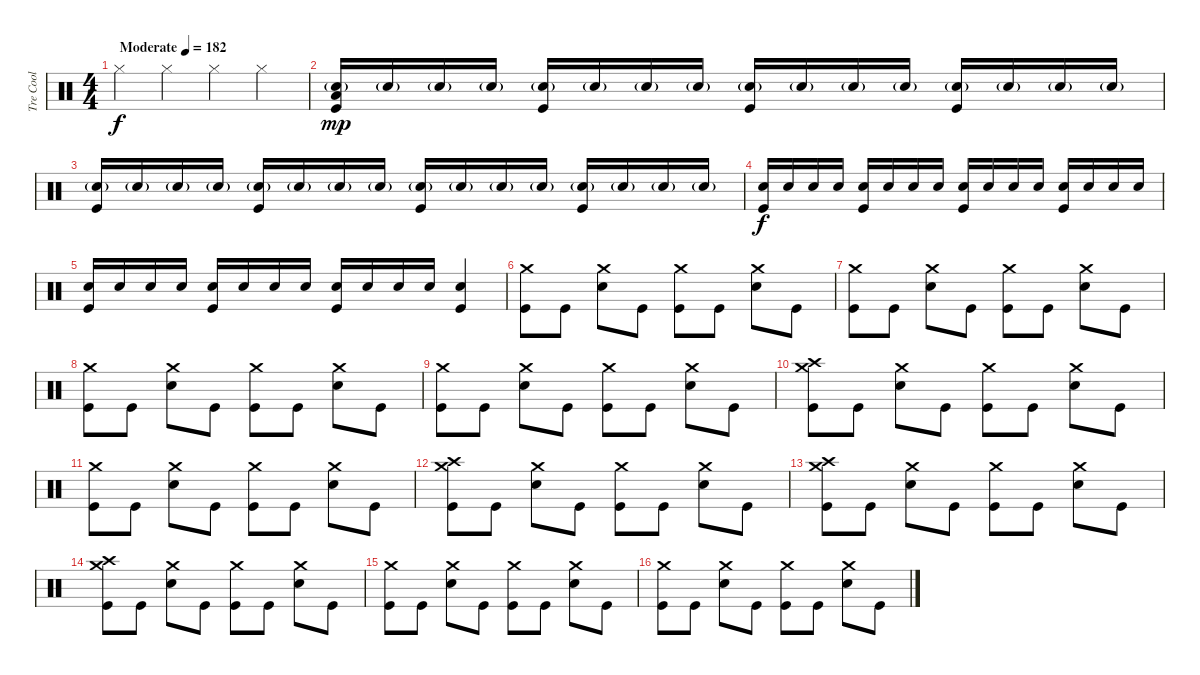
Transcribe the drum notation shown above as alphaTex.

\track ("Tre Cool" "Tre Cool") {instrument percussion}
\staff {score}
\articulation defaults
\ts (4 4)
\tempo (182 "Moderate")
\clef neutral
\ks c "Hi-Hat (closed)".4{dy f} "Hi-Hat (closed)".4 "Hi-Hat (closed)".4 "Hi-Hat (closed)".4
|
("Low Floor Tom (hit)" "Snare (hit) 2"{g} "Kick (hit)").16{dy mp} "Snare (hit) 2"{g}.16 "Snare (hit) 2"{g}.16 "Snare (hit) 2"{g}.16 ("Snare (hit) 2"{g} "Kick (hit)").16 "Snare (hit) 2"{g}.16 "Snare (hit) 2"{g}.16 "Snare (hit) 2"{g}.16 ("Snare (hit) 2"{g} "Kick (hit)").16 "Snare (hit) 2"{g}.16 "Snare (hit) 2"{g}.16 "Snare (hit) 2"{g}.16 ("Snare (hit) 2"{g} "Kick (hit)").16 "Snare (hit) 2"{g}.16 "Snare (hit) 2"{g}.16 "Snare (hit) 2"{g}.16 |
("Snare (hit) 2"{g} "Kick (hit)").16 "Snare (hit) 2"{g}.16 "Snare (hit) 2"{g}.16 "Snare (hit) 2"{g}.16 ("Snare (hit) 2"{g} "Kick (hit)").16 "Snare (hit) 2"{g}.16 "Snare (hit) 2"{g}.16 "Snare (hit) 2"{g}.16 ("Snare (hit) 2"{g} "Kick (hit)").16 "Snare (hit) 2"{g}.16 "Snare (hit) 2"{g}.16 "Snare (hit) 2"{g}.16 ("Snare (hit) 2"{g} "Kick (hit)").16 "Snare (hit) 2"{g}.16 "Snare (hit) 2"{g}.16 "Snare (hit) 2"{g}.16 |
("Snare (hit) 2" "Kick (hit)").16{dy f} "Snare (hit) 2".16 "Snare (hit) 2".16 "Snare (hit) 2".16 ("Snare (hit) 2" "Kick (hit)").16 "Snare (hit) 2".16 "Snare (hit) 2".16 "Snare (hit) 2".16 ("Snare (hit) 2" "Kick (hit)").16 "Snare (hit) 2".16 "Snare (hit) 2".16 "Snare (hit) 2".16 ("Snare (hit) 2" "Kick (hit)").16 "Snare (hit) 2".16 "Snare (hit) 2".16 "Snare (hit) 2".16 |
("Snare (hit) 2" "Kick (hit)").16 "Snare (hit) 2".16 "Snare (hit) 2".16 "Snare (hit) 2".16 ("Snare (hit) 2" "Kick (hit)").16 "Snare (hit) 2".16 "Snare (hit) 2".16 "Snare (hit) 2".16 ("Snare (hit) 2" "Kick (hit)").16 "Snare (hit) 2".16 "Snare (hit) 2".16 "Snare (hit) 2".16 ("Snare (hit) 2" "Kick (hit)").4 |
("Crash medium (hit)" "Kick (hit)").8 "Kick (hit)".8 ("Crash medium (hit)" "Snare (hit) 2").8 "Kick (hit)".8 ("Crash medium (hit)" "Kick (hit)").8 "Kick (hit)".8 ("Crash medium (hit)" "Snare (hit) 2").8 "Kick (hit)".8 |
("Crash medium (hit)" "Kick (hit)").8 "Kick (hit)".8 ("Crash medium (hit)" "Snare (hit) 2").8 "Kick (hit)".8 ("Crash medium (hit)" "Kick (hit)").8 "Kick (hit)".8 ("Crash medium (hit)" "Snare (hit) 2").8 "Kick (hit)".8 |
("Crash medium (hit)" "Kick (hit)").8 "Kick (hit)".8 ("Crash medium (hit)" "Snare (hit) 2").8 "Kick (hit)".8 ("Crash medium (hit)" "Kick (hit)").8 "Kick (hit)".8 ("Crash medium (hit)" "Snare (hit) 2").8 "Kick (hit)".8 |
("Crash medium (hit)" "Kick (hit)").8 "Kick (hit)".8 ("Crash medium (hit)" "Snare (hit) 2").8 "Kick (hit)".8 ("Crash medium (hit)" "Kick (hit)").8 "Kick (hit)".8 ("Crash medium (hit)" "Snare (hit) 2").8 "Kick (hit)".8 |
("Crash medium (hit)" "Crash high (hit)" "Kick (hit)").8 "Kick (hit)".8 ("Crash medium (hit)" "Snare (hit) 2").8 "Kick (hit)".8 ("Crash medium (hit)" "Kick (hit)").8 "Kick (hit)".8 ("Crash medium (hit)" "Snare (hit) 2").8 "Kick (hit)".8 |
("Crash medium (hit)" "Kick (hit)").8 "Kick (hit)".8 ("Crash medium (hit)" "Snare (hit) 2").8 "Kick (hit)".8 ("Crash medium (hit)" "Kick (hit)").8 "Kick (hit)".8 ("Crash medium (hit)" "Snare (hit) 2").8 "Kick (hit)".8 |
("Crash medium (hit)" "Crash high (hit)" "Kick (hit)").8 "Kick (hit)".8 ("Crash medium (hit)" "Snare (hit) 2").8 "Kick (hit)".8 ("Crash medium (hit)" "Kick (hit)").8 "Kick (hit)".8 ("Crash medium (hit)" "Snare (hit) 2").8 "Kick (hit)".8 |
("Crash medium (hit)" "Crash high (hit)" "Kick (hit)").8 "Kick (hit)".8 ("Crash medium (hit)" "Snare (hit) 2").8 "Kick (hit)".8 ("Crash medium (hit)" "Kick (hit)").8 "Kick (hit)".8 ("Crash medium (hit)" "Snare (hit) 2").8 "Kick (hit)".8 |
("Crash medium (hit)" "Crash high (hit)" "Kick (hit)").8 "Kick (hit)".8 ("Crash medium (hit)" "Snare (hit) 2").8 "Kick (hit)".8 ("Crash medium (hit)" "Kick (hit)").8 "Kick (hit)".8 ("Crash medium (hit)" "Snare (hit) 2").8 "Kick (hit)".8 |
("Crash medium (hit)" "Kick (hit)").8 "Kick (hit)".8 ("Crash medium (hit)" "Snare (hit) 2").8 "Kick (hit)".8 ("Crash medium (hit)" "Kick (hit)").8 "Kick (hit)".8 ("Crash medium (hit)" "Snare (hit) 2").8 "Kick (hit)".8 |
("Crash medium (hit)" "Kick (hit)").8 "Kick (hit)".8 ("Crash medium (hit)" "Snare (hit) 2").8 "Kick (hit)".8 ("Crash medium (hit)" "Kick (hit)").8 "Kick (hit)".8 ("Crash medium (hit)" "Snare (hit) 2").8 "Kick (hit)".8
